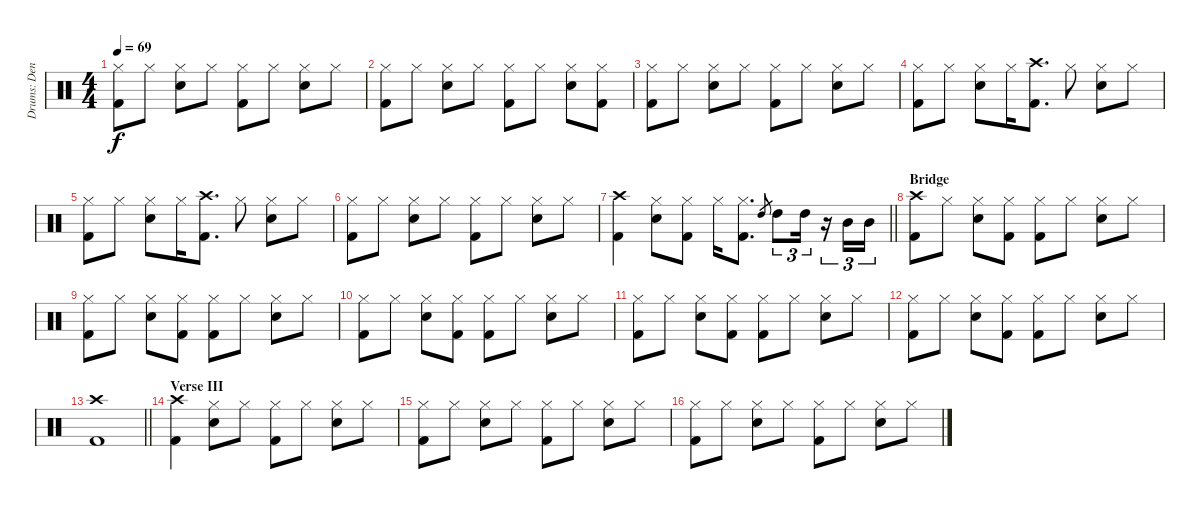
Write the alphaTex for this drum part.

\track ("Drums: Denny" "Drums: Den") {instrument percussion}
\staff {score}
\articulation defaults
\ts (4 4)
\tempo 69
\clef neutral
\ks c
("Hi-Hat (closed)" "Kick (hit) 2").8{dy f} "Hi-Hat (closed)".8 ("Hi-Hat (closed)" "Snare (hit) 2").8 "Hi-Hat (closed)".8 ("Hi-Hat (closed)" "Kick (hit) 2").8 "Hi-Hat (closed)".8 ("Hi-Hat (closed)" "Snare (hit) 2").8 "Hi-Hat (closed)".8 |
("Hi-Hat (closed)" "Kick (hit) 2").8 "Hi-Hat (closed)".8 ("Hi-Hat (closed)" "Snare (hit) 2").8 "Hi-Hat (closed)".8 ("Hi-Hat (closed)" "Kick (hit) 2").8 "Hi-Hat (closed)".8 ("Hi-Hat (closed)" "Snare (hit) 2").8 ("Hi-Hat (closed)" "Kick (hit) 2").8 |
("Hi-Hat (closed)" "Kick (hit) 2").8 "Hi-Hat (closed)".8 ("Hi-Hat (closed)" "Snare (hit) 2").8 "Hi-Hat (closed)".8 ("Hi-Hat (closed)" "Kick (hit) 2").8 "Hi-Hat (closed)".8 ("Hi-Hat (closed)" "Snare (hit) 2").8 "Hi-Hat (closed)".8 |
("Hi-Hat (closed)" "Kick (hit) 2").8 "Hi-Hat (closed)".8 ("Hi-Hat (closed)" "Snare (hit) 2").8 "Hi-Hat (closed)".16 ("Crash high (hit)" "Kick (hit) 2").8{d} "Hi-Hat (closed)".8 ("Hi-Hat (closed)" "Snare (hit) 2").8 "Hi-Hat (closed)".8 |
("Hi-Hat (closed)" "Kick (hit) 2").8 "Hi-Hat (closed)".8 ("Hi-Hat (closed)" "Snare (hit) 2").8 "Hi-Hat (closed)".16 ("Crash high (hit)" "Kick (hit) 2").8{d} "Hi-Hat (closed)".8 ("Hi-Hat (closed)" "Snare (hit) 2").8 "Hi-Hat (closed)".8 |
("Hi-Hat (closed)" "Kick (hit) 2").8 "Hi-Hat (closed)".8 ("Hi-Hat (closed)" "Snare (hit) 2").8 "Hi-Hat (closed)".8 ("Hi-Hat (closed)" "Kick (hit) 2").8 "Hi-Hat (closed)".8 ("Hi-Hat (closed)" "Snare (hit) 2").8 "Hi-Hat (closed)".8 |
\barLineRight lightlight
("Crash high (hit)" "Kick (hit) 2").4 ("Hi-Hat (closed)" "Snare (hit) 2").8 ("Hi-Hat (closed)" "Kick (hit) 2").8 "Hi-Hat (closed)".16 ("Hi-Hat (closed)" "Kick (hit) 2").8{d} "High Tom (hit)".8{gr} "High Tom (hit)".8{tu (3 2)} "High Tom (hit)".16{tu (3 2)} r.16{tu (3 2)} "Mid Tom (hit)".16{tu (3 2)} "Mid Tom (hit)".16{tu (3 2)} |
\section ("" "Bridge")
("Crash high (hit)" "Kick (hit) 2").8 "Hi-Hat (closed)".8 ("Hi-Hat (closed)" "Snare (hit) 2").8 ("Hi-Hat (closed)" "Kick (hit) 2").8 ("Hi-Hat (closed)" "Kick (hit) 2").8 "Hi-Hat (closed)".8 ("Hi-Hat (closed)" "Snare (hit) 2").8 "Hi-Hat (closed)".8 |
("Hi-Hat (closed)" "Kick (hit) 2").8 "Hi-Hat (closed)".8 ("Hi-Hat (closed)" "Snare (hit) 2").8 ("Hi-Hat (closed)" "Kick (hit) 2").8 ("Hi-Hat (closed)" "Kick (hit) 2").8 "Hi-Hat (closed)".8 ("Hi-Hat (closed)" "Snare (hit) 2").8 "Hi-Hat (closed)".8 |
("Hi-Hat (closed)" "Kick (hit) 2").8 "Hi-Hat (closed)".8 ("Hi-Hat (closed)" "Snare (hit) 2").8 ("Hi-Hat (closed)" "Kick (hit) 2").8 ("Hi-Hat (closed)" "Kick (hit) 2").8 "Hi-Hat (closed)".8 ("Hi-Hat (closed)" "Snare (hit) 2").8 "Hi-Hat (closed)".8 |
("Hi-Hat (closed)" "Kick (hit) 2").8 "Hi-Hat (closed)".8 ("Hi-Hat (closed)" "Snare (hit) 2").8 ("Hi-Hat (closed)" "Kick (hit) 2").8 ("Hi-Hat (closed)" "Kick (hit) 2").8 "Hi-Hat (closed)".8 ("Hi-Hat (closed)" "Snare (hit) 2").8 "Hi-Hat (closed)".8 |
("Hi-Hat (closed)" "Kick (hit) 2").8 "Hi-Hat (closed)".8 ("Hi-Hat (closed)" "Snare (hit) 2").8 ("Hi-Hat (closed)" "Kick (hit) 2").8 ("Hi-Hat (closed)" "Kick (hit) 2").8 "Hi-Hat (closed)".8 ("Hi-Hat (closed)" "Snare (hit) 2").8 "Hi-Hat (closed)".8 |
\barLineRight lightlight
("Crash high (hit)" "Kick (hit) 2").1 |
\section ("" "Verse III")
("Crash high (hit)" "Kick (hit) 2").4 ("Hi-Hat (closed)" "Snare (hit) 2").8 "Hi-Hat (closed)".8 ("Hi-Hat (closed)" "Kick (hit) 2").8 "Hi-Hat (closed)".8 ("Hi-Hat (closed)" "Snare (hit) 2").8 "Hi-Hat (closed)".8 |
("Hi-Hat (closed)" "Kick (hit) 2").8 "Hi-Hat (closed)".8 ("Hi-Hat (closed)" "Snare (hit) 2").8 "Hi-Hat (closed)".8 ("Hi-Hat (closed)" "Kick (hit) 2").8 "Hi-Hat (closed)".8 ("Hi-Hat (closed)" "Snare (hit) 2").8 "Hi-Hat (closed)".8 |
("Hi-Hat (closed)" "Kick (hit) 2").8 "Hi-Hat (closed)".8 ("Hi-Hat (closed)" "Snare (hit) 2").8 "Hi-Hat (closed)".8 ("Hi-Hat (closed)" "Kick (hit) 2").8 "Hi-Hat (closed)".8 ("Hi-Hat (closed)" "Snare (hit) 2").8 "Hi-Hat (closed)".8
